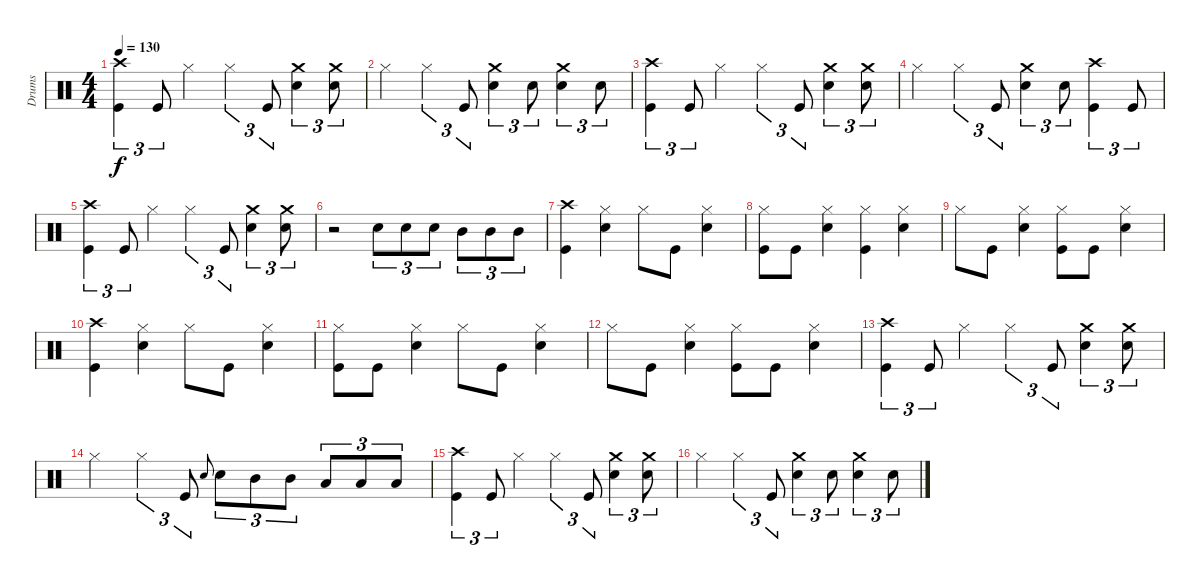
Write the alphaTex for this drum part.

\track ("Drums" "Drums") {instrument percussion}
\staff {score}
\articulation defaults
\ts (4 4)
\tempo 130
\clef neutral
\ks c
("Crash high (hit)" "Kick (hit)").4{tu (3 2) dy f} "Kick (hit)".8{tu (3 2)} "Hi-Hat (closed)".4 "Hi-Hat (closed)".4{tu (3 2)} "Kick (hit)".8{tu (3 2)} ("Crash medium (hit)" "Snare (hit) 2").4{tu (3 2)} ("Crash medium (hit)" "Snare (hit) 2").8{tu (3 2)} |
"Hi-Hat (closed)".4 "Hi-Hat (closed)".4{tu (3 2)} "Kick (hit)".8{tu (3 2)} ("Crash medium (hit)" "Snare (hit) 2").4{tu (3 2)} "Snare (hit) 2".8{tu (3 2)} ("Crash medium (hit)" "Snare (hit) 2").4{tu (3 2)} "Snare (hit) 2".8{tu (3 2)} |
("Crash high (hit)" "Kick (hit)").4{tu (3 2)} "Kick (hit)".8{tu (3 2)} "Hi-Hat (closed)".4 "Hi-Hat (closed)".4{tu (3 2)} "Kick (hit)".8{tu (3 2)} ("Crash medium (hit)" "Snare (hit) 2").4{tu (3 2)} ("Crash medium (hit)" "Snare (hit) 2").8{tu (3 2)} |
"Hi-Hat (closed)".4 "Hi-Hat (closed)".4{tu (3 2)} "Kick (hit)".8{tu (3 2)} ("Crash medium (hit)" "Snare (hit) 2").4{tu (3 2)} "Snare (hit) 2".8{tu (3 2)} ("Crash high (hit)" "Kick (hit)").4{tu (3 2)} "Kick (hit)".8{tu (3 2)} |
("Crash high (hit)" "Kick (hit)").4{tu (3 2)} "Kick (hit)".8{tu (3 2)} "Hi-Hat (closed)".4 "Hi-Hat (closed)".4{tu (3 2)} "Kick (hit)".8{tu (3 2)} ("Crash medium (hit)" "Snare (hit) 2").4{tu (3 2)} ("Crash medium (hit)" "Snare (hit) 2").8{tu (3 2)} |
r.2 "Snare (hit) 2".8{tu (3 2)} "Snare (hit) 2".8{tu (3 2)} "Snare (hit) 2".8{tu (3 2)} "Mid Tom (hit)".8{tu (3 2)} "Mid Tom (hit)".8{tu (3 2)} "Mid Tom (hit)".8{tu (3 2)} |
("Crash high (hit)" "Kick (hit)").4 ("Hi-Hat (closed)" "Snare (hit) 2").4 "Hi-Hat (closed)".8 "Kick (hit)".8 ("Hi-Hat (closed)" "Snare (hit) 2").4 |
("Hi-Hat (closed)" "Kick (hit)").8 "Kick (hit)".8 ("Hi-Hat (closed)" "Snare (hit) 2").4 ("Hi-Hat (closed)" "Kick (hit)").4 ("Hi-Hat (closed)" "Snare (hit) 2").4 |
"Hi-Hat (closed)".8 "Kick (hit)".8 ("Hi-Hat (closed)" "Snare (hit) 2").4 ("Hi-Hat (closed)" "Kick (hit)").8 "Kick (hit)".8 ("Hi-Hat (closed)" "Snare (hit) 2").4 |
("Crash high (hit)" "Kick (hit)").4 ("Hi-Hat (closed)" "Snare (hit) 2").4 "Hi-Hat (closed)".8 "Kick (hit)".8 ("Hi-Hat (closed)" "Snare (hit) 2").4 |
("Hi-Hat (closed)" "Kick (hit)").8 "Kick (hit)".8 ("Hi-Hat (closed)" "Snare (hit) 2").4 "Hi-Hat (closed)".8 "Kick (hit)".8 ("Hi-Hat (closed)" "Snare (hit) 2").4 |
"Hi-Hat (closed)".8 "Kick (hit)".8 ("Hi-Hat (closed)" "Snare (hit) 2").4 ("Hi-Hat (closed)" "Kick (hit)").8 "Kick (hit)".8 ("Hi-Hat (closed)" "Snare (hit) 2").4 |
("Crash high (hit)" "Kick (hit)").4{tu (3 2)} "Kick (hit)".8{tu (3 2)} "Hi-Hat (closed)".4 "Hi-Hat (closed)".4{tu (3 2)} "Kick (hit)".8{tu (3 2)} ("Crash medium (hit)" "Snare (hit) 2").4{tu (3 2)} ("Crash medium (hit)" "Snare (hit) 2").8{tu (3 2)} |
"Hi-Hat (closed)".4 "Hi-Hat (closed)".4{tu (3 2)} "Kick (hit)".8{tu (3 2)} "Snare (hit) 2".8{gr onbeat} "Snare (hit) 2".8{tu (3 2)} "Mid Tom (hit)".8{tu (3 2)} "Mid Tom (hit)".8{tu (3 2)} "Low Tom (hit)".8{tu (3 2)} "Low Tom (hit)".8{tu (3 2)} "Low Tom (hit)".8{tu (3 2)} |
("Crash high (hit)" "Kick (hit)").4{tu (3 2)} "Kick (hit)".8{tu (3 2)} "Hi-Hat (closed)".4 "Hi-Hat (closed)".4{tu (3 2)} "Kick (hit)".8{tu (3 2)} ("Crash medium (hit)" "Snare (hit) 2").4{tu (3 2)} ("Crash medium (hit)" "Snare (hit) 2").8{tu (3 2)} |
"Hi-Hat (closed)".4 "Hi-Hat (closed)".4{tu (3 2)} "Kick (hit)".8{tu (3 2)} ("Crash medium (hit)" "Snare (hit) 2").4{tu (3 2)} "Snare (hit) 2".8{tu (3 2)} ("Crash medium (hit)" "Snare (hit) 2").4{tu (3 2)} "Snare (hit) 2".8{tu (3 2)}
